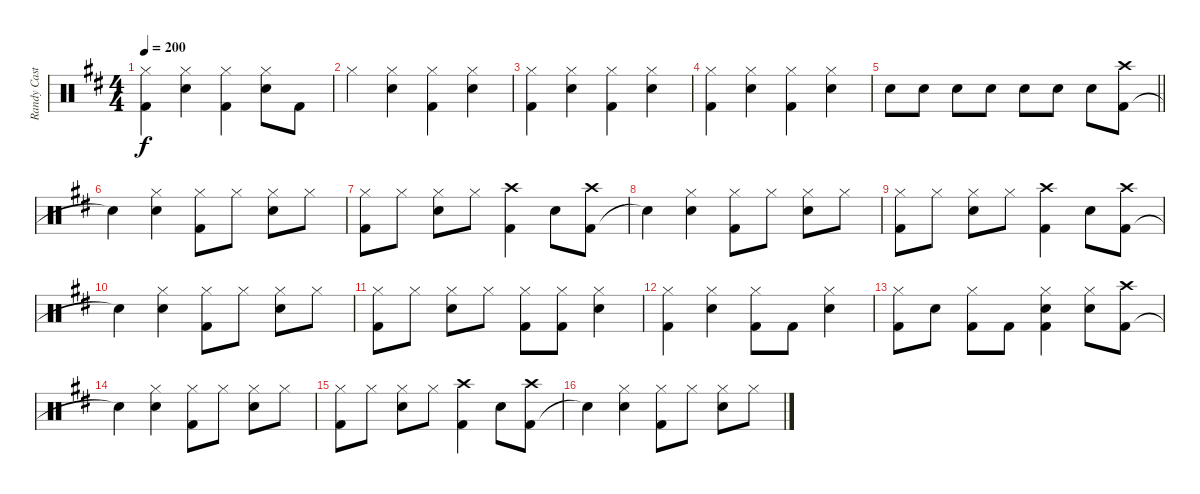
\track ("Randy Castillo" "Randy Cast") {instrument percussion}
\staff {score}
\articulation defaults
\ts (4 4)
\tempo 200
\clef neutral
\ks d
("Hi-Hat (closed)" "Kick (hit) 2").4{dy f} ("Hi-Hat (closed)" "Snare (hit) 2").4 ("Hi-Hat (closed)" "Kick (hit) 2").4 ("Hi-Hat (closed)" "Snare (hit) 2").8 "Kick (hit) 2".8 |
"Hi-Hat (closed)".4 ("Hi-Hat (closed)" "Snare (hit) 2").4 ("Hi-Hat (closed)" "Kick (hit) 2").4 ("Hi-Hat (closed)" "Snare (hit) 2").4 |
("Hi-Hat (closed)" "Kick (hit) 2").4 ("Hi-Hat (closed)" "Snare (hit) 2").4 ("Hi-Hat (closed)" "Kick (hit) 2").4 ("Hi-Hat (closed)" "Snare (hit) 2").4 |
("Hi-Hat (closed)" "Kick (hit) 2").4 ("Hi-Hat (closed)" "Snare (hit) 2").4 ("Hi-Hat (closed)" "Kick (hit) 2").4 ("Hi-Hat (closed)" "Snare (hit) 2").4 |
\barLineRight lightlight "Snare (hit) 2".8 "Snare (hit) 2".8 "Snare (hit) 2".8 "Snare (hit) 2".8 "Snare (hit) 2".8 "Snare (hit) 2".8 "Snare (hit) 2".8
("Kick (hit) 2" "Crash high (hit)").8 |
"Snare (hit)"{t}.4 ("Hi-Hat (closed)" "Snare (hit) 2").4 ("Hi-Hat (closed)" "Kick (hit) 2").8 "Hi-Hat (closed)".8 ("Hi-Hat (closed)" "Snare (hit) 2").8 "Hi-Hat (closed)".8 |
("Hi-Hat (closed)" "Kick (hit) 2").8 "Hi-Hat (closed)".8 ("Hi-Hat (closed)" "Snare (hit) 2").8 "Hi-Hat (closed)".8 ("Kick (hit) 2" "Crash high (hit)").4 "Snare (hit) 2".8 ("Kick (hit) 2" "Crash high (hit)").8 |
"Snare (hit)"{t}.4 ("Hi-Hat (closed)" "Snare (hit) 2").4 ("Hi-Hat (closed)" "Kick (hit) 2").8 "Hi-Hat (closed)".8 ("Hi-Hat (closed)" "Snare (hit) 2").8 "Hi-Hat (closed)".8 |
("Hi-Hat (closed)" "Kick (hit) 2").8 "Hi-Hat (closed)".8 ("Hi-Hat (closed)" "Snare (hit) 2").8 "Hi-Hat (closed)".8 ("Kick (hit) 2" "Crash high (hit)").4 "Snare (hit) 2".8 ("Kick (hit) 2" "Crash high (hit)").8 |
"Snare (hit)"{t}.4 ("Hi-Hat (closed)" "Snare (hit) 2").4 ("Hi-Hat (closed)" "Kick (hit) 2").8 "Hi-Hat (closed)".8 ("Hi-Hat (closed)" "Snare (hit) 2").8 "Hi-Hat (closed)".8 |
("Hi-Hat (closed)" "Kick (hit) 2").8 "Hi-Hat (closed)".8 ("Hi-Hat (closed)" "Snare (hit) 2").8 "Hi-Hat (closed)".8 ("Hi-Hat (closed)" "Kick (hit) 2").8 ("Hi-Hat (closed)" "Kick (hit) 2").8 ("Hi-Hat (closed)" "Snare (hit) 2").4 |
("Hi-Hat (closed)" "Kick (hit) 2").4 ("Hi-Hat (closed)" "Snare (hit) 2").4 ("Hi-Hat (closed)" "Kick (hit) 2").8 "Kick (hit) 2".8 ("Hi-Hat (closed)" "Snare (hit) 2").4 |
("Hi-Hat (closed)" "Kick (hit) 2").8 "Snare (hit) 2".8 ("Hi-Hat (closed)" "Kick (hit) 2").8 "Kick (hit) 2".8 ("Hi-Hat (closed)" "Snare (hit) 2" "Kick (hit) 2").4 ("Hi-Hat (closed)" "Snare (hit) 2").8 ("Kick (hit) 2" "Crash high (hit)").8 |
"Snare (hit)"{t}.4 ("Hi-Hat (closed)" "Snare (hit) 2").4 ("Hi-Hat (closed)" "Kick (hit) 2").8 "Hi-Hat (closed)".8 ("Hi-Hat (closed)" "Snare (hit) 2").8 "Hi-Hat (closed)".8 |
("Hi-Hat (closed)" "Kick (hit) 2").8 "Hi-Hat (closed)".8 ("Hi-Hat (closed)" "Snare (hit) 2").8 "Hi-Hat (closed)".8 ("Kick (hit) 2" "Crash high (hit)").4 "Snare (hit) 2".8 ("Kick (hit) 2" "Crash high (hit)").8 |
"Snare (hit)"{t}.4 ("Hi-Hat (closed)" "Snare (hit) 2").4 ("Hi-Hat (closed)" "Kick (hit) 2").8 "Hi-Hat (closed)".8 ("Hi-Hat (closed)" "Snare (hit) 2").8 "Hi-Hat (closed)".8
